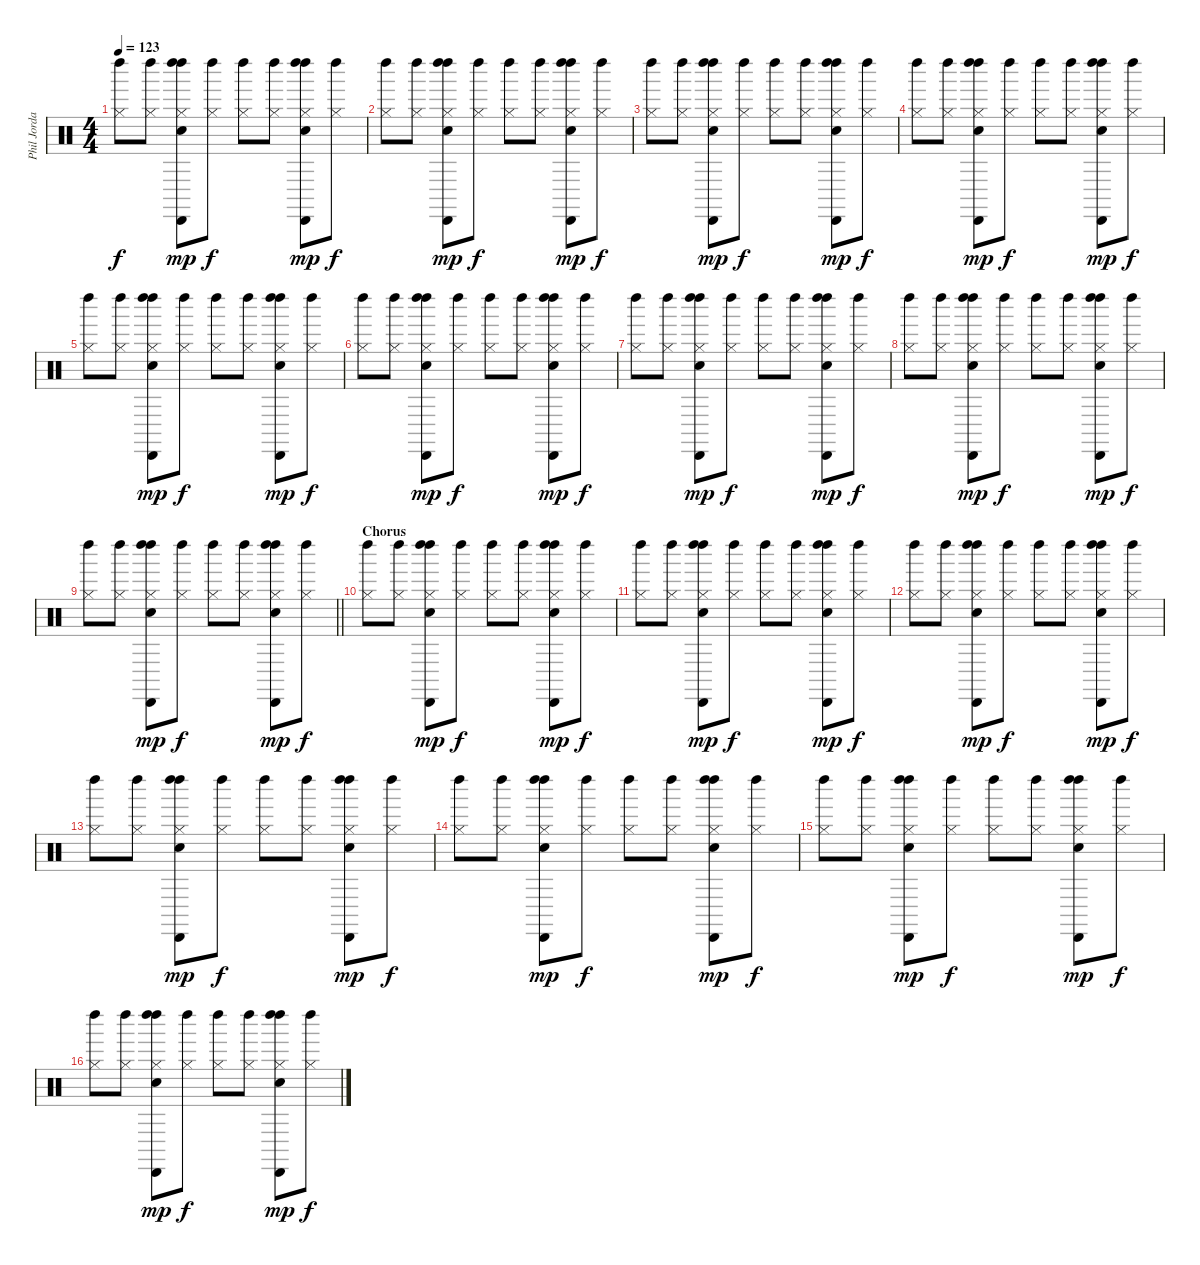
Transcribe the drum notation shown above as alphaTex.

\track ("Phil Jordan" "Phil Jorda") {instrument percussion}
\staff {score}
\articulation defaults
\ts (4 4)
\tempo 123
\clef neutral
\ks c
("Left Maraca (hit)" "Hi-Hat (closed)").8{dy f} ("Left Maraca (hit)" "Hi-Hat (closed)").8 ("Left Maraca (hit)" "Hi-Hat (closed)" "Cabasa (hit)" "Left Maraca (hit)" "Snare (hit) 2").8{dy mp} ("Left Maraca (hit)" "Hi-Hat (closed)").8{dy f} ("Left Maraca (hit)" "Hi-Hat (closed)").8 ("Left Maraca (hit)" "Hi-Hat (closed)").8 ("Left Maraca (hit)" "Hi-Hat (closed)" "Cabasa (hit)" "Left Maraca (hit)" "Snare (hit) 2").8{dy mp} ("Left Maraca (hit)" "Hi-Hat (closed)").8{dy f} |
("Left Maraca (hit)" "Hi-Hat (closed)").8 ("Left Maraca (hit)" "Hi-Hat (closed)").8 ("Left Maraca (hit)" "Hi-Hat (closed)" "Cabasa (hit)" "Left Maraca (hit)" "Snare (hit) 2").8{dy mp} ("Left Maraca (hit)" "Hi-Hat (closed)").8{dy f} ("Left Maraca (hit)" "Hi-Hat (closed)").8 ("Left Maraca (hit)" "Hi-Hat (closed)").8 ("Left Maraca (hit)" "Hi-Hat (closed)" "Cabasa (hit)" "Left Maraca (hit)" "Snare (hit) 2").8{dy mp} ("Left Maraca (hit)" "Hi-Hat (closed)").8{dy f} |
("Left Maraca (hit)" "Hi-Hat (closed)").8 ("Left Maraca (hit)" "Hi-Hat (closed)").8 ("Left Maraca (hit)" "Hi-Hat (closed)" "Cabasa (hit)" "Left Maraca (hit)" "Snare (hit) 2").8{dy mp} ("Left Maraca (hit)" "Hi-Hat (closed)").8{dy f} ("Left Maraca (hit)" "Hi-Hat (closed)").8 ("Left Maraca (hit)" "Hi-Hat (closed)").8 ("Left Maraca (hit)" "Hi-Hat (closed)" "Cabasa (hit)" "Left Maraca (hit)" "Snare (hit) 2").8{dy mp} ("Left Maraca (hit)" "Hi-Hat (closed)").8{dy f} |
("Left Maraca (hit)" "Hi-Hat (closed)").8{volume 8} ("Left Maraca (hit)" "Hi-Hat (closed)").8 ("Left Maraca (hit)" "Hi-Hat (closed)" "Cabasa (hit)" "Left Maraca (hit)" "Snare (hit) 2").8{dy mp} ("Left Maraca (hit)" "Hi-Hat (closed)").8{dy f} ("Left Maraca (hit)" "Hi-Hat (closed)").8 ("Left Maraca (hit)" "Hi-Hat (closed)").8 ("Left Maraca (hit)" "Hi-Hat (closed)" "Cabasa (hit)" "Left Maraca (hit)" "Snare (hit) 2").8{dy mp} ("Left Maraca (hit)" "Hi-Hat (closed)").8{dy f} |
("Left Maraca (hit)" "Hi-Hat (closed)").8 ("Left Maraca (hit)" "Hi-Hat (closed)").8 ("Left Maraca (hit)" "Hi-Hat (closed)" "Cabasa (hit)" "Left Maraca (hit)" "Snare (hit) 2").8{dy mp} ("Left Maraca (hit)" "Hi-Hat (closed)").8{dy f} ("Left Maraca (hit)" "Hi-Hat (closed)").8 ("Left Maraca (hit)" "Hi-Hat (closed)").8 ("Left Maraca (hit)" "Hi-Hat (closed)" "Cabasa (hit)" "Left Maraca (hit)" "Snare (hit) 2").8{dy mp} ("Left Maraca (hit)" "Hi-Hat (closed)").8{dy f} |
("Left Maraca (hit)" "Hi-Hat (closed)").8 ("Left Maraca (hit)" "Hi-Hat (closed)").8 ("Left Maraca (hit)" "Hi-Hat (closed)" "Cabasa (hit)" "Left Maraca (hit)" "Snare (hit) 2").8{dy mp} ("Left Maraca (hit)" "Hi-Hat (closed)").8{dy f} ("Left Maraca (hit)" "Hi-Hat (closed)").8 ("Left Maraca (hit)" "Hi-Hat (closed)").8 ("Left Maraca (hit)" "Hi-Hat (closed)" "Cabasa (hit)" "Left Maraca (hit)" "Snare (hit) 2").8{dy mp} ("Left Maraca (hit)" "Hi-Hat (closed)").8{dy f} |
("Left Maraca (hit)" "Hi-Hat (closed)").8 ("Left Maraca (hit)" "Hi-Hat (closed)").8 ("Left Maraca (hit)" "Hi-Hat (closed)" "Cabasa (hit)" "Left Maraca (hit)" "Snare (hit) 2").8{dy mp} ("Left Maraca (hit)" "Hi-Hat (closed)").8{dy f} ("Left Maraca (hit)" "Hi-Hat (closed)").8 ("Left Maraca (hit)" "Hi-Hat (closed)").8 ("Left Maraca (hit)" "Hi-Hat (closed)" "Cabasa (hit)" "Left Maraca (hit)" "Snare (hit) 2").8{dy mp} ("Left Maraca (hit)" "Hi-Hat (closed)").8{dy f} |
("Left Maraca (hit)" "Hi-Hat (closed)").8{volume 8} ("Left Maraca (hit)" "Hi-Hat (closed)").8 ("Left Maraca (hit)" "Hi-Hat (closed)" "Cabasa (hit)" "Left Maraca (hit)" "Snare (hit) 2").8{dy mp} ("Left Maraca (hit)" "Hi-Hat (closed)").8{dy f} ("Left Maraca (hit)" "Hi-Hat (closed)").8 ("Left Maraca (hit)" "Hi-Hat (closed)").8 ("Left Maraca (hit)" "Hi-Hat (closed)" "Cabasa (hit)" "Left Maraca (hit)" "Snare (hit) 2").8{dy mp} ("Left Maraca (hit)" "Hi-Hat (closed)").8{dy f} |
\barLineRight lightlight
("Left Maraca (hit)" "Hi-Hat (closed)").8 ("Left Maraca (hit)" "Hi-Hat (closed)").8 ("Left Maraca (hit)" "Hi-Hat (closed)" "Cabasa (hit)" "Left Maraca (hit)" "Snare (hit) 2").8{dy mp} ("Left Maraca (hit)" "Hi-Hat (closed)").8{dy f} ("Left Maraca (hit)" "Hi-Hat (closed)").8 ("Left Maraca (hit)" "Hi-Hat (closed)").8 ("Left Maraca (hit)" "Hi-Hat (closed)" "Cabasa (hit)" "Left Maraca (hit)" "Snare (hit) 2").8{dy mp} ("Left Maraca (hit)" "Hi-Hat (closed)").8{dy f} |
\section ("" "Chorus")
("Left Maraca (hit)" "Hi-Hat (closed)").8{volume 8} ("Left Maraca (hit)" "Hi-Hat (closed)").8 ("Left Maraca (hit)" "Hi-Hat (closed)" "Cabasa (hit)" "Left Maraca (hit)" "Snare (hit) 2").8{dy mp} ("Left Maraca (hit)" "Hi-Hat (closed)").8{dy f} ("Left Maraca (hit)" "Hi-Hat (closed)").8 ("Left Maraca (hit)" "Hi-Hat (closed)").8 ("Left Maraca (hit)" "Hi-Hat (closed)" "Cabasa (hit)" "Left Maraca (hit)" "Snare (hit) 2").8{dy mp} ("Left Maraca (hit)" "Hi-Hat (closed)").8{dy f} |
("Left Maraca (hit)" "Hi-Hat (closed)").8 ("Left Maraca (hit)" "Hi-Hat (closed)").8 ("Left Maraca (hit)" "Hi-Hat (closed)" "Cabasa (hit)" "Left Maraca (hit)" "Snare (hit) 2").8{dy mp} ("Left Maraca (hit)" "Hi-Hat (closed)").8{dy f} ("Left Maraca (hit)" "Hi-Hat (closed)").8 ("Left Maraca (hit)" "Hi-Hat (closed)").8 ("Left Maraca (hit)" "Hi-Hat (closed)" "Cabasa (hit)" "Left Maraca (hit)" "Snare (hit) 2").8{dy mp} ("Left Maraca (hit)" "Hi-Hat (closed)").8{dy f} |
("Left Maraca (hit)" "Hi-Hat (closed)").8 ("Left Maraca (hit)" "Hi-Hat (closed)").8 ("Left Maraca (hit)" "Hi-Hat (closed)" "Cabasa (hit)" "Left Maraca (hit)" "Snare (hit) 2").8{dy mp} ("Left Maraca (hit)" "Hi-Hat (closed)").8{dy f} ("Left Maraca (hit)" "Hi-Hat (closed)").8 ("Left Maraca (hit)" "Hi-Hat (closed)").8 ("Left Maraca (hit)" "Hi-Hat (closed)" "Cabasa (hit)" "Left Maraca (hit)" "Snare (hit) 2").8{dy mp} ("Left Maraca (hit)" "Hi-Hat (closed)").8{dy f} |
("Left Maraca (hit)" "Hi-Hat (closed)").8 ("Left Maraca (hit)" "Hi-Hat (closed)").8 ("Left Maraca (hit)" "Hi-Hat (closed)" "Cabasa (hit)" "Left Maraca (hit)" "Snare (hit) 2").8{dy mp} ("Left Maraca (hit)" "Hi-Hat (closed)").8{dy f} ("Left Maraca (hit)" "Hi-Hat (closed)").8 ("Left Maraca (hit)" "Hi-Hat (closed)").8 ("Left Maraca (hit)" "Hi-Hat (closed)" "Cabasa (hit)" "Left Maraca (hit)" "Snare (hit) 2").8{dy mp} ("Left Maraca (hit)" "Hi-Hat (closed)").8{dy f} |
("Left Maraca (hit)" "Hi-Hat (closed)").8{volume 8} ("Left Maraca (hit)" "Hi-Hat (closed)").8 ("Left Maraca (hit)" "Hi-Hat (closed)" "Cabasa (hit)" "Left Maraca (hit)" "Snare (hit) 2").8{dy mp} ("Left Maraca (hit)" "Hi-Hat (closed)").8{dy f} ("Left Maraca (hit)" "Hi-Hat (closed)").8 ("Left Maraca (hit)" "Hi-Hat (closed)").8 ("Left Maraca (hit)" "Hi-Hat (closed)" "Cabasa (hit)" "Left Maraca (hit)" "Snare (hit) 2").8{dy mp} ("Left Maraca (hit)" "Hi-Hat (closed)").8{dy f} |
("Left Maraca (hit)" "Hi-Hat (closed)").8 ("Left Maraca (hit)" "Hi-Hat (closed)").8 ("Left Maraca (hit)" "Hi-Hat (closed)" "Cabasa (hit)" "Left Maraca (hit)" "Snare (hit) 2").8{dy mp} ("Left Maraca (hit)" "Hi-Hat (closed)").8{dy f} ("Left Maraca (hit)" "Hi-Hat (closed)").8 ("Left Maraca (hit)" "Hi-Hat (closed)").8 ("Left Maraca (hit)" "Hi-Hat (closed)" "Cabasa (hit)" "Left Maraca (hit)" "Snare (hit) 2").8{dy mp} ("Left Maraca (hit)" "Hi-Hat (closed)").8{dy f} |
("Left Maraca (hit)" "Hi-Hat (closed)").8 ("Left Maraca (hit)" "Hi-Hat (closed)").8 ("Left Maraca (hit)" "Hi-Hat (closed)" "Cabasa (hit)" "Left Maraca (hit)" "Snare (hit) 2").8{dy mp} ("Left Maraca (hit)" "Hi-Hat (closed)").8{dy f} ("Left Maraca (hit)" "Hi-Hat (closed)").8 ("Left Maraca (hit)" "Hi-Hat (closed)").8 ("Left Maraca (hit)" "Hi-Hat (closed)" "Cabasa (hit)" "Left Maraca (hit)" "Snare (hit) 2").8{dy mp} ("Left Maraca (hit)" "Hi-Hat (closed)").8{dy f}
